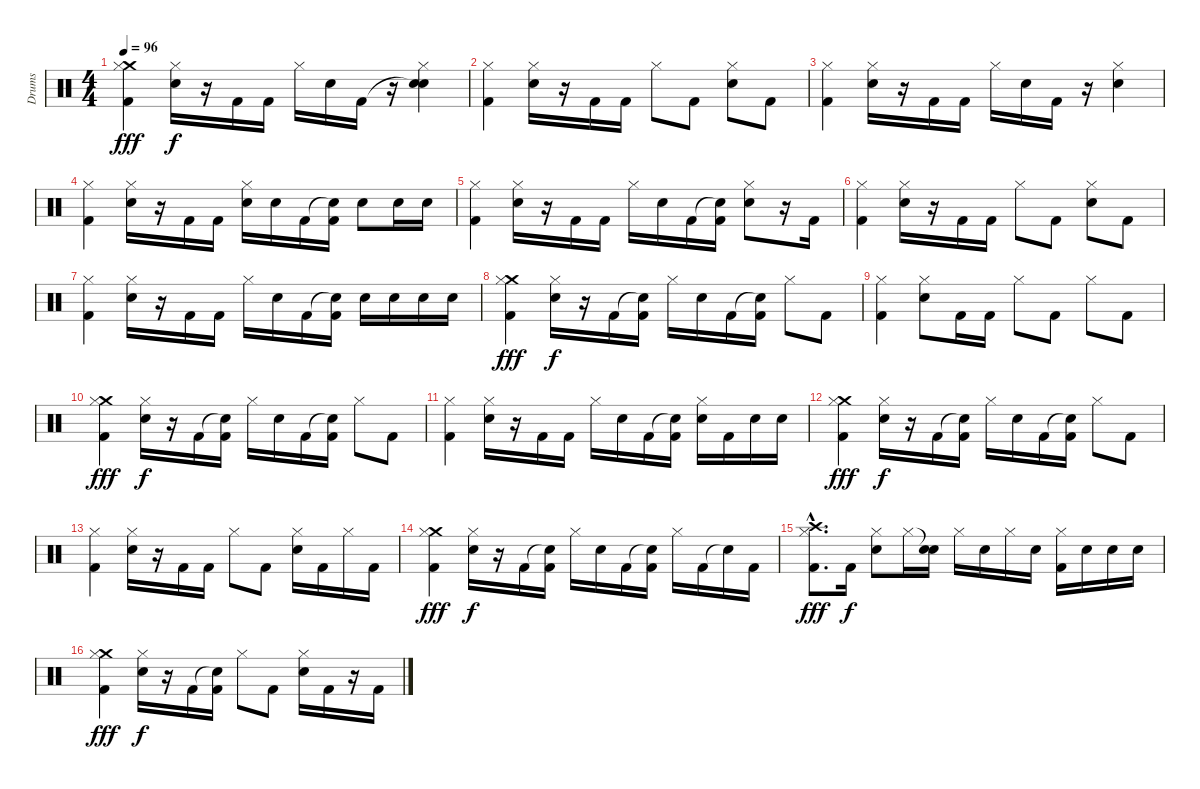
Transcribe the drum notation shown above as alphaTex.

\track ("Drums" "Drums") {instrument percussion}
\staff {score}
\articulation defaults
\ts (4 4)
\tempo 96
\clef neutral
\ks c
("Crash medium (hit)" "Hi-Hat (closed)" "Kick (hit) 2").4{dy fff} ("Hi-Hat (closed)" "Snare (hit) 2").16{dy f} r.16 "Kick (hit) 2".16 "Kick (hit) 2".16 "Hi-Hat (closed)".16 "Snare (hit) 2".16 "Kick (hit) 2".16 r.16 ("Snare (hit)"{t} "Hi-Hat (closed)" "Snare (hit) 2").4 |
("Hi-Hat (closed)" "Kick (hit) 2").4 ("Hi-Hat (closed)" "Snare (hit) 2").16 r.16 "Kick (hit) 2".16 "Kick (hit) 2".16 "Hi-Hat (closed)".8 "Kick (hit) 2".8 ("Hi-Hat (closed)" "Snare (hit) 2").8 "Kick (hit) 2".8 |
("Hi-Hat (closed)" "Kick (hit) 2").4 ("Hi-Hat (closed)" "Snare (hit) 2").16 r.16 "Kick (hit) 2".16 "Kick (hit) 2".16 "Hi-Hat (closed)".16 "Snare (hit) 2".16 "Kick (hit) 2".16 r.16 ("Hi-Hat (closed)" "Snare (hit) 2").4 |
("Hi-Hat (closed)" "Kick (hit) 2").4 ("Hi-Hat (closed)" "Snare (hit) 2").16 r.16 "Kick (hit) 2".16 "Kick (hit) 2".16 ("Hi-Hat (closed)" "Snare (hit) 2").16 "Snare (hit) 2".16 "Kick (hit) 2".16 ("Snare (hit)"{t} "Kick (hit) 2").16 "Snare (hit) 2".8 "Snare (hit) 2".16 "Snare (hit) 2".16 |
("Hi-Hat (closed)" "Kick (hit) 2").4 ("Hi-Hat (closed)" "Snare (hit) 2").16 r.16 "Kick (hit) 2".16 "Kick (hit) 2".16 "Hi-Hat (closed)".16 "Snare (hit) 2".16 "Kick (hit) 2".16 ("Snare (hit)"{t} "Kick (hit) 2").16 ("Hi-Hat (closed)" "Snare (hit) 2").8 r.16 "Kick (hit) 2".16 |
("Hi-Hat (closed)" "Kick (hit) 2").4 ("Hi-Hat (closed)" "Snare (hit) 2").16 r.16 "Kick (hit) 2".16 "Kick (hit) 2".16 "Hi-Hat (closed)".8 "Kick (hit) 2".8 ("Hi-Hat (closed)" "Snare (hit) 2").8 "Kick (hit) 2".8 |
("Hi-Hat (closed)" "Kick (hit) 2").4 ("Hi-Hat (closed)" "Snare (hit) 2").16 r.16 "Kick (hit) 2".16 "Kick (hit) 2".16 "Hi-Hat (closed)".16 "Snare (hit) 2".16 "Kick (hit) 2".16 ("Snare (hit)"{t} "Kick (hit) 2").16 "Snare (hit) 2".16 "Snare (hit) 2".16 "Snare (hit) 2".16 "Snare (hit) 2".16 |
("Crash medium (hit)" "Hi-Hat (closed)" "Kick (hit) 2").4{dy fff} ("Hi-Hat (closed)" "Snare (hit) 2").16{dy f} r.16 "Kick (hit) 2".16 ("Snare (hit)"{t} "Kick (hit) 2").16 "Hi-Hat (closed)".16 "Snare (hit) 2".16 "Kick (hit) 2".16 ("Snare (hit)"{t} "Kick (hit) 2").16 "Hi-Hat (closed)".8 "Kick (hit) 2".8 |
("Hi-Hat (closed)" "Kick (hit) 2").4 ("Hi-Hat (closed)" "Snare (hit) 2").8 "Kick (hit) 2".16 "Kick (hit) 2".16 "Hi-Hat (closed)".8 "Kick (hit) 2".8 "Hi-Hat (closed)".8 "Kick (hit) 2".8 |
("Crash medium (hit)" "Hi-Hat (closed)" "Kick (hit) 2").4{dy fff} ("Hi-Hat (closed)" "Snare (hit) 2").16{dy f} r.16 "Kick (hit) 2".16 ("Snare (hit)"{t} "Kick (hit) 2").16 "Hi-Hat (closed)".16 "Snare (hit) 2".16 "Kick (hit) 2".16 ("Snare (hit)"{t} "Kick (hit) 2").16 "Hi-Hat (closed)".8 "Kick (hit) 2".8 |
("Hi-Hat (closed)" "Kick (hit) 2").4 ("Hi-Hat (closed)" "Snare (hit) 2").16 r.16 "Kick (hit) 2".16 "Kick (hit) 2".16 "Hi-Hat (closed)".16 "Snare (hit) 2".16 "Kick (hit) 2".16 ("Snare (hit)"{t} "Kick (hit) 2").16 ("Hi-Hat (closed)" "Snare (hit) 2").16 "Kick (hit) 2".16 "Snare (hit) 2".16 "Snare (hit) 2".16 |
("Crash medium (hit)" "Hi-Hat (closed)" "Kick (hit) 2").4{dy fff} ("Hi-Hat (closed)" "Snare (hit) 2").16{dy f} r.16 "Kick (hit) 2".16 ("Snare (hit)"{t} "Kick (hit) 2").16 "Hi-Hat (closed)".16 "Snare (hit) 2".16 "Kick (hit) 2".16 ("Snare (hit)"{t} "Kick (hit) 2").16 "Hi-Hat (closed)".8 "Kick (hit) 2".8 |
("Hi-Hat (closed)" "Kick (hit) 2").4 ("Hi-Hat (closed)" "Snare (hit) 2").16 r.16 "Kick (hit) 2".16 "Kick (hit) 2".16 "Hi-Hat (closed)".8 "Kick (hit) 2".8 ("Hi-Hat (closed)" "Snare (hit) 2").16 "Kick (hit) 2".16 "Hi-Hat (closed)".16 "Kick (hit) 2".16 |
("Crash medium (hit)" "Hi-Hat (closed)" "Kick (hit) 2").4{dy fff} ("Hi-Hat (closed)" "Snare (hit) 2").16{dy f} r.16 "Kick (hit) 2".16 ("Snare (hit)"{t} "Kick (hit) 2").16 "Hi-Hat (closed)".16 "Snare (hit) 2".16 "Kick (hit) 2".16 ("Snare (hit)"{t} "Kick (hit) 2").16 "Hi-Hat (closed)".16 "Kick (hit) 2".16 "Snare (hit)"{t}.16 "Kick (hit) 2".16 |
("Crash high (hit)"{hac} "Hi-Hat (closed)"{hac} "Kick (hit) 2"{hac}).8{d dy fff} "Kick (hit) 2".16{dy f} ("Hi-Hat (closed)" "Snare (hit) 2").8 "Hi-Hat (closed)".16 ("Snare (hit)"{t} "Snare (hit) 2").16 "Hi-Hat (closed)".16 "Snare (hit) 2".16 "Hi-Hat (closed)".16 "Snare (hit) 2".16 ("Hi-Hat (closed)" "Kick (hit) 2").16 "Snare (hit) 2".16 "Snare (hit) 2".16 "Snare (hit) 2".16 |
("Crash medium (hit)" "Hi-Hat (closed)" "Kick (hit) 2").4{dy fff} ("Hi-Hat (closed)" "Snare (hit) 2").16{dy f} r.16 "Kick (hit) 2".16 ("Snare (hit)"{t} "Kick (hit) 2").16 "Hi-Hat (closed)".8 "Kick (hit) 2".8 ("Hi-Hat (closed)" "Snare (hit) 2").16 "Kick (hit) 2".16 r.16 "Kick (hit) 2".16
